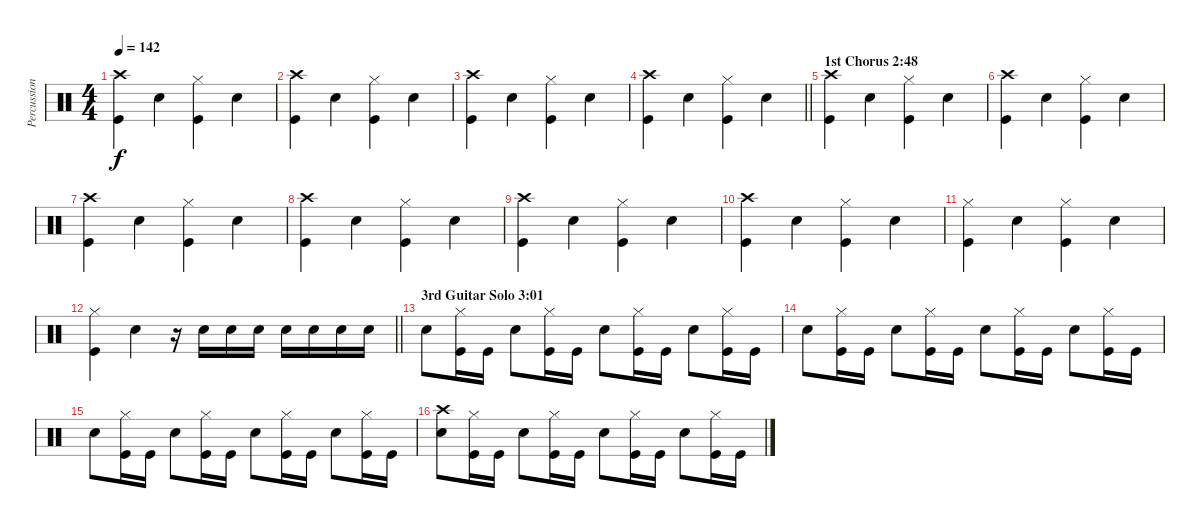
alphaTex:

\track ("Percussion" "Percussion") {instrument percussion}
\staff {score}
\articulation defaults
\ts (4 4)
\tempo 142
\clef neutral
\ks c
("Crash high (hit)" "Kick (hit)").4{dy f} "Snare (hit) 2".4 ("Hi-Hat (closed)" "Kick (hit)").4 "Snare (hit) 2".4 |
("Crash high (hit)" "Kick (hit)").4 "Snare (hit) 2".4 ("Hi-Hat (closed)" "Kick (hit)").4 "Snare (hit) 2".4 |
("Crash high (hit)" "Kick (hit)").4 "Snare (hit) 2".4 ("Hi-Hat (closed)" "Kick (hit)").4 "Snare (hit) 2".4 |
\barLineRight lightlight
("Crash high (hit)" "Kick (hit)").4 "Snare (hit) 2".4 ("Hi-Hat (closed)" "Kick (hit)").4 "Snare (hit) 2".4 |
\section ("" "1st Chorus 2:48")
("Crash high (hit)" "Kick (hit)").4 "Snare (hit) 2".4 ("Hi-Hat (closed)" "Kick (hit)").4 "Snare (hit) 2".4 |
("Crash high (hit)" "Kick (hit)").4 "Snare (hit) 2".4 ("Hi-Hat (closed)" "Kick (hit)").4 "Snare (hit) 2".4 |
("Crash high (hit)" "Kick (hit)").4 "Snare (hit) 2".4 ("Hi-Hat (closed)" "Kick (hit)").4 "Snare (hit) 2".4 |
("Crash high (hit)" "Kick (hit)").4 "Snare (hit) 2".4 ("Hi-Hat (closed)" "Kick (hit)").4 "Snare (hit) 2".4 |
("Crash high (hit)" "Kick (hit)").4 "Snare (hit) 2".4 ("Hi-Hat (closed)" "Kick (hit)").4 "Snare (hit) 2".4 |
("Crash high (hit)" "Kick (hit)").4 "Snare (hit) 2".4 ("Hi-Hat (closed)" "Kick (hit)").4 "Snare (hit) 2".4 |
("Hi-Hat (closed)" "Kick (hit)").4 "Snare (hit) 2".4 ("Hi-Hat (closed)" "Kick (hit)").4 "Snare (hit) 2".4 |
\barLineRight lightlight
("Hi-Hat (closed)" "Kick (hit)").4 "Snare (hit) 2".4 r.16 "Snare (hit) 2".16 "Snare (hit) 2".16 "Snare (hit) 2".16 "Snare (hit) 2".16 "Snare (hit) 2".16 "Snare (hit) 2".16 "Snare (hit) 2".16 |
\section ("" "3rd Guitar Solo 3:01")
"Snare (hit) 2".8 ("Hi-Hat (closed)" "Kick (hit)").16 "Kick (hit)".16 "Snare (hit) 2".8 ("Hi-Hat (closed)" "Kick (hit)").16 "Kick (hit)".16 "Snare (hit) 2".8 ("Hi-Hat (closed)" "Kick (hit)").16 "Kick (hit)".16 "Snare (hit) 2".8 ("Hi-Hat (closed)" "Kick (hit)").16 "Kick (hit)".16 |
"Snare (hit) 2".8 ("Hi-Hat (closed)" "Kick (hit)").16 "Kick (hit)".16 "Snare (hit) 2".8 ("Hi-Hat (closed)" "Kick (hit)").16 "Kick (hit)".16 "Snare (hit) 2".8 ("Hi-Hat (closed)" "Kick (hit)").16 "Kick (hit)".16 "Snare (hit) 2".8 ("Hi-Hat (closed)" "Kick (hit)").16 "Kick (hit)".16 |
"Snare (hit) 2".8 ("Hi-Hat (closed)" "Kick (hit)").16 "Kick (hit)".16 "Snare (hit) 2".8 ("Hi-Hat (closed)" "Kick (hit)").16 "Kick (hit)".16 "Snare (hit) 2".8 ("Hi-Hat (closed)" "Kick (hit)").16 "Kick (hit)".16 "Snare (hit) 2".8 ("Hi-Hat (closed)" "Kick (hit)").16 "Kick (hit)".16 |
("Crash high (hit)" "Snare (hit) 2").8 ("Hi-Hat (closed)" "Kick (hit)").16 "Kick (hit)".16 "Snare (hit) 2".8 ("Hi-Hat (closed)" "Kick (hit)").16 "Kick (hit)".16 "Snare (hit) 2".8 ("Hi-Hat (closed)" "Kick (hit)").16 "Kick (hit)".16 "Snare (hit) 2".8 ("Hi-Hat (closed)" "Kick (hit)").16 "Kick (hit)".16
